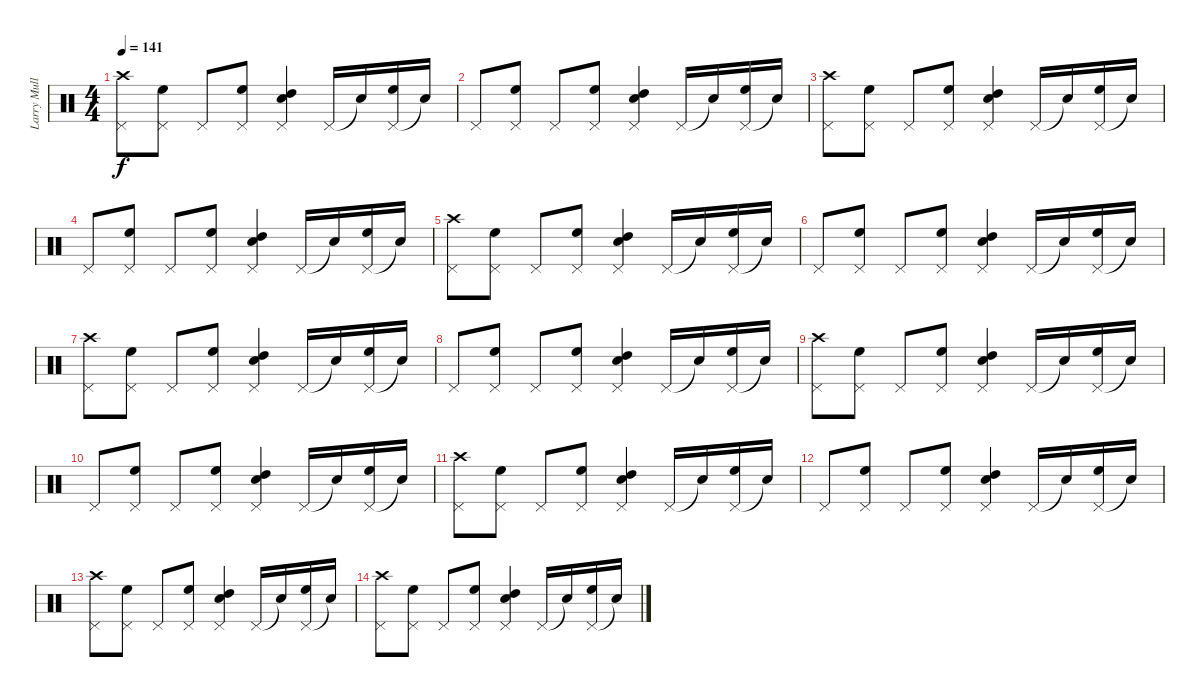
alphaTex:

\track ("Larry Mullen Jr's Drums" "Larry Mull") {instrument percussion}
\staff {score}
\articulation defaults
\ts (4 4)
\tempo 141
\clef neutral
\ks c
("Pedal Hi-Hat (hit)" "Crash high (hit)").8{dy f} ("Pedal Hi-Hat (hit)" "High Floor Tom (hit)").8 "Pedal Hi-Hat (hit)".8 ("Pedal Hi-Hat (hit)" "High Floor Tom (hit)").8 ("Pedal Hi-Hat (hit)" "High Tom (hit)" "Electric Snare (hit)").4 "Pedal Hi-Hat (hit)".16 "Snare (hit)"{t}.16 ("Pedal Hi-Hat (hit)" "High Floor Tom (hit)").16 "Snare (hit)"{t}.16 |
"Pedal Hi-Hat (hit)".8 ("Pedal Hi-Hat (hit)" "High Floor Tom (hit)").8 "Pedal Hi-Hat (hit)".8 ("Pedal Hi-Hat (hit)" "High Floor Tom (hit)").8 ("Pedal Hi-Hat (hit)" "High Tom (hit)" "Electric Snare (hit)").4 "Pedal Hi-Hat (hit)".16 "Snare (hit)"{t}.16 ("Pedal Hi-Hat (hit)" "High Floor Tom (hit)").16 "Snare (hit)"{t}.16 |
("Pedal Hi-Hat (hit)" "Crash high (hit)").8 ("Pedal Hi-Hat (hit)" "High Floor Tom (hit)").8 "Pedal Hi-Hat (hit)".8 ("Pedal Hi-Hat (hit)" "High Floor Tom (hit)").8 ("Pedal Hi-Hat (hit)" "High Tom (hit)" "Electric Snare (hit)").4 "Pedal Hi-Hat (hit)".16 "Snare (hit)"{t}.16 ("Pedal Hi-Hat (hit)" "High Floor Tom (hit)").16 "Snare (hit)"{t}.16 |
"Pedal Hi-Hat (hit)".8 ("Pedal Hi-Hat (hit)" "High Floor Tom (hit)").8 "Pedal Hi-Hat (hit)".8 ("Pedal Hi-Hat (hit)" "High Floor Tom (hit)").8 ("Pedal Hi-Hat (hit)" "High Tom (hit)" "Electric Snare (hit)").4 "Pedal Hi-Hat (hit)".16 "Snare (hit)"{t}.16 ("Pedal Hi-Hat (hit)" "High Floor Tom (hit)").16 "Snare (hit)"{t}.16 |
("Pedal Hi-Hat (hit)" "Crash high (hit)").8 ("Pedal Hi-Hat (hit)" "High Floor Tom (hit)").8 "Pedal Hi-Hat (hit)".8 ("Pedal Hi-Hat (hit)" "High Floor Tom (hit)").8 ("Pedal Hi-Hat (hit)" "High Tom (hit)" "Electric Snare (hit)").4 "Pedal Hi-Hat (hit)".16 "Snare (hit)"{t}.16 ("Pedal Hi-Hat (hit)" "High Floor Tom (hit)").16 "Snare (hit)"{t}.16 |
"Pedal Hi-Hat (hit)".8 ("Pedal Hi-Hat (hit)" "High Floor Tom (hit)").8 "Pedal Hi-Hat (hit)".8 ("Pedal Hi-Hat (hit)" "High Floor Tom (hit)").8 ("Pedal Hi-Hat (hit)" "High Tom (hit)" "Electric Snare (hit)").4 "Pedal Hi-Hat (hit)".16 "Snare (hit)"{t}.16 ("Pedal Hi-Hat (hit)" "High Floor Tom (hit)").16 "Snare (hit)"{t}.16 |
("Pedal Hi-Hat (hit)" "Crash high (hit)").8 ("Pedal Hi-Hat (hit)" "High Floor Tom (hit)").8 "Pedal Hi-Hat (hit)".8 ("Pedal Hi-Hat (hit)" "High Floor Tom (hit)").8 ("Pedal Hi-Hat (hit)" "High Tom (hit)" "Electric Snare (hit)").4 "Pedal Hi-Hat (hit)".16 "Snare (hit)"{t}.16 ("Pedal Hi-Hat (hit)" "High Floor Tom (hit)").16 "Snare (hit)"{t}.16 |
"Pedal Hi-Hat (hit)".8 ("Pedal Hi-Hat (hit)" "High Floor Tom (hit)").8 "Pedal Hi-Hat (hit)".8 ("Pedal Hi-Hat (hit)" "High Floor Tom (hit)").8 ("Pedal Hi-Hat (hit)" "High Tom (hit)" "Electric Snare (hit)").4 "Pedal Hi-Hat (hit)".16 "Snare (hit)"{t}.16 ("Pedal Hi-Hat (hit)" "High Floor Tom (hit)").16 "Snare (hit)"{t}.16 |
("Pedal Hi-Hat (hit)" "Crash high (hit)").8 ("Pedal Hi-Hat (hit)" "High Floor Tom (hit)").8 "Pedal Hi-Hat (hit)".8 ("Pedal Hi-Hat (hit)" "High Floor Tom (hit)").8 ("Pedal Hi-Hat (hit)" "High Tom (hit)" "Electric Snare (hit)").4 "Pedal Hi-Hat (hit)".16 "Snare (hit)"{t}.16 ("Pedal Hi-Hat (hit)" "High Floor Tom (hit)").16 "Snare (hit)"{t}.16 |
"Pedal Hi-Hat (hit)".8 ("Pedal Hi-Hat (hit)" "High Floor Tom (hit)").8 "Pedal Hi-Hat (hit)".8 ("Pedal Hi-Hat (hit)" "High Floor Tom (hit)").8 ("Pedal Hi-Hat (hit)" "High Tom (hit)" "Electric Snare (hit)").4 "Pedal Hi-Hat (hit)".16 "Snare (hit)"{t}.16 ("Pedal Hi-Hat (hit)" "High Floor Tom (hit)").16 "Snare (hit)"{t}.16 |
("Pedal Hi-Hat (hit)" "Crash high (hit)").8 ("Pedal Hi-Hat (hit)" "High Floor Tom (hit)").8 "Pedal Hi-Hat (hit)".8 ("Pedal Hi-Hat (hit)" "High Floor Tom (hit)").8 ("Pedal Hi-Hat (hit)" "High Tom (hit)" "Electric Snare (hit)").4 "Pedal Hi-Hat (hit)".16 "Snare (hit)"{t}.16 ("Pedal Hi-Hat (hit)" "High Floor Tom (hit)").16 "Snare (hit)"{t}.16 |
"Pedal Hi-Hat (hit)".8 ("Pedal Hi-Hat (hit)" "High Floor Tom (hit)").8 "Pedal Hi-Hat (hit)".8 ("Pedal Hi-Hat (hit)" "High Floor Tom (hit)").8 ("Pedal Hi-Hat (hit)" "High Tom (hit)" "Electric Snare (hit)").4 "Pedal Hi-Hat (hit)".16 "Snare (hit)"{t}.16 ("Pedal Hi-Hat (hit)" "High Floor Tom (hit)").16 "Snare (hit)"{t}.16 |
("Pedal Hi-Hat (hit)" "Crash high (hit)").8 ("Pedal Hi-Hat (hit)" "High Floor Tom (hit)").8 "Pedal Hi-Hat (hit)".8 ("Pedal Hi-Hat (hit)" "High Floor Tom (hit)").8 ("Pedal Hi-Hat (hit)" "High Tom (hit)" "Electric Snare (hit)").4 "Pedal Hi-Hat (hit)".16 "Snare (hit)"{t}.16 ("Pedal Hi-Hat (hit)" "High Floor Tom (hit)").16 "Snare (hit)"{t}.16 |
("Pedal Hi-Hat (hit)" "Crash high (hit)").8 ("Pedal Hi-Hat (hit)" "High Floor Tom (hit)").8 "Pedal Hi-Hat (hit)".8 ("Pedal Hi-Hat (hit)" "High Floor Tom (hit)").8 ("Pedal Hi-Hat (hit)" "High Tom (hit)" "Electric Snare (hit)").4 "Pedal Hi-Hat (hit)".16 "Snare (hit)"{t}.16 ("Pedal Hi-Hat (hit)" "High Floor Tom (hit)").16 "Snare (hit)"{t}.16
